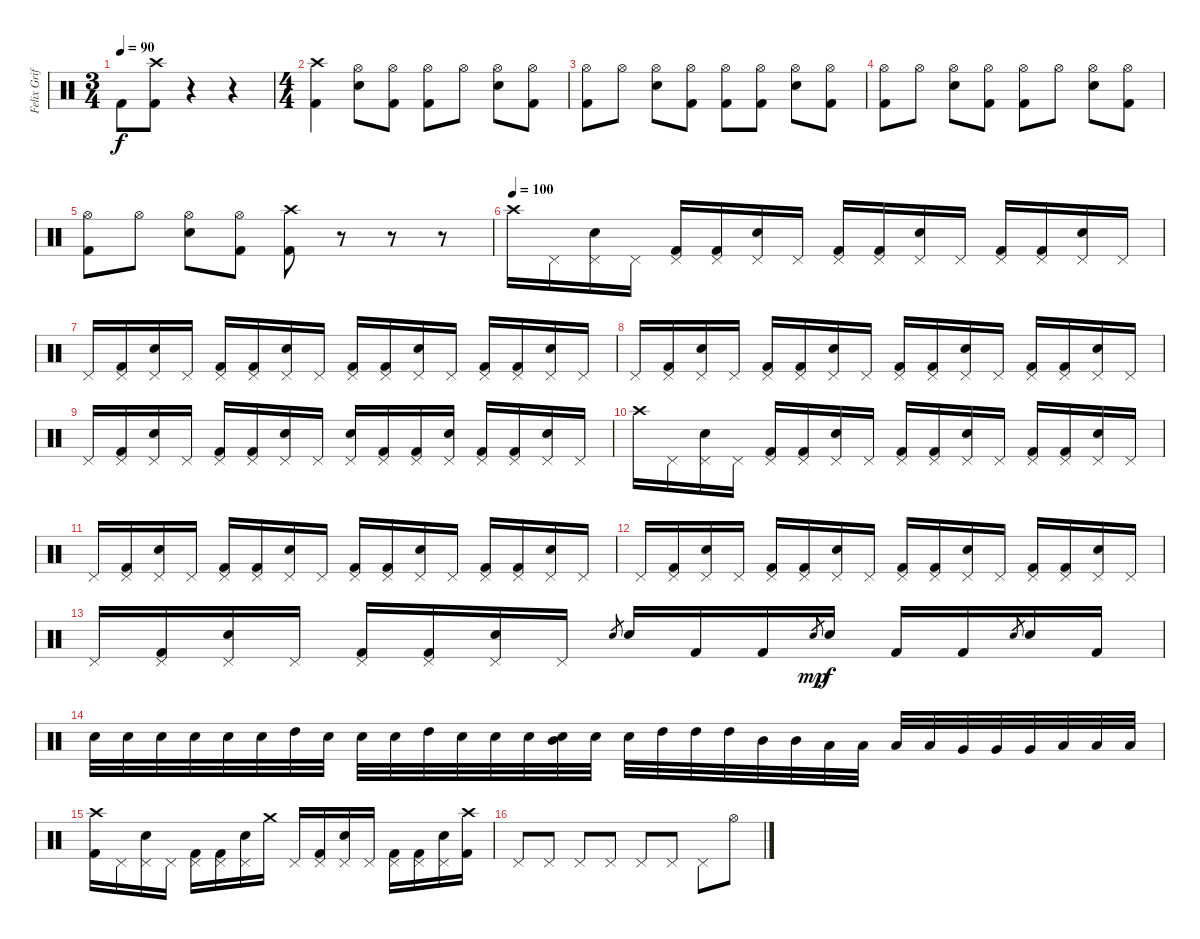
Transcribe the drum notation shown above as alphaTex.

\track ("Felix Griffen" "Felix Grif") {instrument percussion}
\staff {score}
\articulation defaults
\ts (3 4)
\tempo 90
\clef neutral
\ks c "Kick (hit) 2".8{dy f}
("Crash high (hit)" "Kick (hit) 2").8 r.4 r.4 |
\ts (4 4)
("Crash high (hit)" "Kick (hit) 2").4 ("Hi-Hat (open)" "Electric Snare (hit)").8 ("Hi-Hat (open)" "Kick (hit) 2").8 ("Hi-Hat (open)" "Kick (hit) 2").8 "Hi-Hat (open)".8 ("Hi-Hat (open)" "Electric Snare (hit)").8 ("Hi-Hat (open)" "Kick (hit) 2").8 |
("Hi-Hat (open)" "Kick (hit) 2").8 "Hi-Hat (open)".8 ("Hi-Hat (open)" "Electric Snare (hit)").8 ("Hi-Hat (open)" "Kick (hit) 2").8 ("Hi-Hat (open)" "Kick (hit) 2").8 ("Hi-Hat (open)" "Kick (hit) 2").8 ("Hi-Hat (open)" "Electric Snare (hit)").8 ("Hi-Hat (open)" "Kick (hit) 2").8 |
("Hi-Hat (open)" "Kick (hit) 2").8 "Hi-Hat (open)".8 ("Hi-Hat (open)" "Electric Snare (hit)").8 ("Hi-Hat (open)" "Kick (hit) 2").8 ("Hi-Hat (open)" "Kick (hit) 2").8 "Hi-Hat (open)".8 ("Hi-Hat (open)" "Electric Snare (hit)").8 ("Hi-Hat (open)" "Kick (hit) 2").8 |
("Hi-Hat (open)" "Kick (hit) 2").8 "Hi-Hat (open)".8 ("Hi-Hat (open)" "Electric Snare (hit)").8 ("Hi-Hat (open)" "Kick (hit) 2").8 ("Crash high (hit)" "Kick (hit) 2").8 r.8 r.8 r.8 |
\tempo (100)
"Crash high (hit)".16 "Pedal Hi-Hat (hit)".16 ("Pedal Hi-Hat (hit)" "Electric Snare (hit)").16 "Pedal Hi-Hat (hit)".16 ("Pedal Hi-Hat (hit)" "Kick (hit) 2").16 ("Pedal Hi-Hat (hit)" "Kick (hit) 2").16 ("Pedal Hi-Hat (hit)" "Electric Snare (hit)").16 "Pedal Hi-Hat (hit)".16 ("Pedal Hi-Hat (hit)" "Kick (hit) 2").16 ("Pedal Hi-Hat (hit)" "Kick (hit) 2").16 ("Pedal Hi-Hat (hit)" "Electric Snare (hit)").16 "Pedal Hi-Hat (hit)".16 ("Pedal Hi-Hat (hit)" "Kick (hit) 2").16 ("Pedal Hi-Hat (hit)" "Kick (hit) 2").16 ("Pedal Hi-Hat (hit)" "Electric Snare (hit)").16 "Pedal Hi-Hat (hit)".16 |
"Pedal Hi-Hat (hit)".16 ("Pedal Hi-Hat (hit)" "Kick (hit) 2").16 ("Pedal Hi-Hat (hit)" "Electric Snare (hit)").16 "Pedal Hi-Hat (hit)".16 ("Pedal Hi-Hat (hit)" "Kick (hit) 2").16 ("Pedal Hi-Hat (hit)" "Kick (hit) 2").16 ("Pedal Hi-Hat (hit)" "Electric Snare (hit)").16 "Pedal Hi-Hat (hit)".16 ("Pedal Hi-Hat (hit)" "Kick (hit) 2").16 ("Pedal Hi-Hat (hit)" "Kick (hit) 2").16 ("Pedal Hi-Hat (hit)" "Electric Snare (hit)").16 "Pedal Hi-Hat (hit)".16 ("Pedal Hi-Hat (hit)" "Kick (hit) 2").16 ("Pedal Hi-Hat (hit)" "Kick (hit) 2").16 ("Pedal Hi-Hat (hit)" "Electric Snare (hit)").16 "Pedal Hi-Hat (hit)".16 |
"Pedal Hi-Hat (hit)".16 ("Pedal Hi-Hat (hit)" "Kick (hit) 2").16 ("Pedal Hi-Hat (hit)" "Electric Snare (hit)").16 "Pedal Hi-Hat (hit)".16 ("Pedal Hi-Hat (hit)" "Kick (hit) 2").16 ("Pedal Hi-Hat (hit)" "Kick (hit) 2").16 ("Pedal Hi-Hat (hit)" "Electric Snare (hit)").16 "Pedal Hi-Hat (hit)".16 ("Pedal Hi-Hat (hit)" "Kick (hit) 2").16 ("Pedal Hi-Hat (hit)" "Kick (hit) 2").16 ("Pedal Hi-Hat (hit)" "Electric Snare (hit)").16 "Pedal Hi-Hat (hit)".16 ("Pedal Hi-Hat (hit)" "Kick (hit) 2").16 ("Pedal Hi-Hat (hit)" "Kick (hit) 2").16 ("Pedal Hi-Hat (hit)" "Electric Snare (hit)").16 "Pedal Hi-Hat (hit)".16 |
"Pedal Hi-Hat (hit)".16 ("Pedal Hi-Hat (hit)" "Kick (hit) 2").16 ("Pedal Hi-Hat (hit)" "Electric Snare (hit)").16 "Pedal Hi-Hat (hit)".16 ("Pedal Hi-Hat (hit)" "Kick (hit) 2").16 ("Pedal Hi-Hat (hit)" "Kick (hit) 2").16 ("Pedal Hi-Hat (hit)" "Electric Snare (hit)").16 "Pedal Hi-Hat (hit)".16 ("Pedal Hi-Hat (hit)" "Electric Snare (hit)").16 ("Pedal Hi-Hat (hit)" "Kick (hit) 2").16 ("Pedal Hi-Hat (hit)" "Kick (hit) 2").16 ("Pedal Hi-Hat (hit)" "Electric Snare (hit)").16 ("Pedal Hi-Hat (hit)" "Kick (hit) 2").16 ("Pedal Hi-Hat (hit)" "Kick (hit) 2").16 ("Pedal Hi-Hat (hit)" "Electric Snare (hit)").16 "Pedal Hi-Hat (hit)".16 |
"Crash high (hit)".16 "Pedal Hi-Hat (hit)".16 ("Pedal Hi-Hat (hit)" "Electric Snare (hit)").16 "Pedal Hi-Hat (hit)".16 ("Pedal Hi-Hat (hit)" "Kick (hit) 2").16 ("Pedal Hi-Hat (hit)" "Kick (hit) 2").16 ("Pedal Hi-Hat (hit)" "Electric Snare (hit)").16 "Pedal Hi-Hat (hit)".16 ("Pedal Hi-Hat (hit)" "Kick (hit) 2").16 ("Pedal Hi-Hat (hit)" "Kick (hit) 2").16 ("Pedal Hi-Hat (hit)" "Electric Snare (hit)").16 "Pedal Hi-Hat (hit)".16 ("Pedal Hi-Hat (hit)" "Kick (hit) 2").16 ("Pedal Hi-Hat (hit)" "Kick (hit) 2").16 ("Pedal Hi-Hat (hit)" "Electric Snare (hit)").16 "Pedal Hi-Hat (hit)".16 |
"Pedal Hi-Hat (hit)".16 ("Pedal Hi-Hat (hit)" "Kick (hit) 2").16 ("Pedal Hi-Hat (hit)" "Electric Snare (hit)").16 "Pedal Hi-Hat (hit)".16 ("Pedal Hi-Hat (hit)" "Kick (hit) 2").16 ("Pedal Hi-Hat (hit)" "Kick (hit) 2").16 ("Pedal Hi-Hat (hit)" "Electric Snare (hit)").16 "Pedal Hi-Hat (hit)".16 ("Pedal Hi-Hat (hit)" "Kick (hit) 2").16 ("Pedal Hi-Hat (hit)" "Kick (hit) 2").16 ("Pedal Hi-Hat (hit)" "Electric Snare (hit)").16 "Pedal Hi-Hat (hit)".16 ("Pedal Hi-Hat (hit)" "Kick (hit) 2").16 ("Pedal Hi-Hat (hit)" "Kick (hit) 2").16 ("Pedal Hi-Hat (hit)" "Electric Snare (hit)").16 "Pedal Hi-Hat (hit)".16 |
"Pedal Hi-Hat (hit)".16 ("Pedal Hi-Hat (hit)" "Kick (hit) 2").16 ("Pedal Hi-Hat (hit)" "Electric Snare (hit)").16 "Pedal Hi-Hat (hit)".16 ("Pedal Hi-Hat (hit)" "Kick (hit) 2").16 ("Pedal Hi-Hat (hit)" "Kick (hit) 2").16 ("Pedal Hi-Hat (hit)" "Electric Snare (hit)").16 "Pedal Hi-Hat (hit)".16 ("Pedal Hi-Hat (hit)" "Kick (hit) 2").16 ("Pedal Hi-Hat (hit)" "Kick (hit) 2").16 ("Pedal Hi-Hat (hit)" "Electric Snare (hit)").16 "Pedal Hi-Hat (hit)".16 ("Pedal Hi-Hat (hit)" "Kick (hit) 2").16 ("Pedal Hi-Hat (hit)" "Kick (hit) 2").16 ("Pedal Hi-Hat (hit)" "Electric Snare (hit)").16 "Pedal Hi-Hat (hit)".16 |
"Pedal Hi-Hat (hit)".16 ("Pedal Hi-Hat (hit)" "Kick (hit) 2").16 ("Pedal Hi-Hat (hit)" "Electric Snare (hit)").16 "Pedal Hi-Hat (hit)".16 ("Pedal Hi-Hat (hit)" "Kick (hit) 2").16 ("Pedal Hi-Hat (hit)" "Kick (hit) 2").16 ("Pedal Hi-Hat (hit)" "Electric Snare (hit)").16 "Pedal Hi-Hat (hit)".16 "Electric Snare (hit)".8{gr} "Electric Snare (hit)".16 "Kick (hit) 2".16 "Kick (hit) 2".16 "Electric Snare (hit)".8{gr dy mp} "Electric Snare (hit)".16{dy f} "Kick (hit) 2".16 "Kick (hit) 2".16 "Electric Snare (hit)".8{gr} "Electric Snare (hit)".16 "Kick (hit) 2".16 |
"Electric Snare (hit)".32 "Electric Snare (hit)".32 "Electric Snare (hit)".32 "Electric Snare (hit)".32 "Electric Snare (hit)".32 "Electric Snare (hit)".32 "High Tom (hit)".32 "Electric Snare (hit)".32 "Electric Snare (hit)".32 "Electric Snare (hit)".32 "High Tom (hit)".32 "Electric Snare (hit)".32 "Electric Snare (hit)".32 "Electric Snare (hit)".32 ("Mid Tom (hit)" "Electric Snare (hit)").32 "Electric Snare (hit)".32 "Electric Snare (hit)".32 "High Tom (hit)".32 "High Tom (hit)".32 "High Tom (hit)".32 "Mid Tom (hit)".32 "Mid Tom (hit)".32 "Low Tom (hit)".32 "Low Tom (hit)".32 "Low Tom (hit)".32 "Low Tom (hit)".32 "Very Low Tom (hit)".32 "Very Low Tom (hit)".32 "Very Low Tom (hit)".32 "Low Floor Tom (hit)".32 "Low Floor Tom (hit)".32 "Low Floor Tom (hit)".32 |
("Crash high (hit)" "Kick (hit) 2").16 "Pedal Hi-Hat (hit)".16 ("Pedal Hi-Hat (hit)" "Electric Snare (hit)").16 "Pedal Hi-Hat (hit)".16 ("Pedal Hi-Hat (hit)" "Kick (hit) 2").16 ("Pedal Hi-Hat (hit)" "Kick (hit) 2").16 ("Pedal Hi-Hat (hit)" "Electric Snare (hit)").16 "Crash medium (hit)".16 "Pedal Hi-Hat (hit)".16 ("Pedal Hi-Hat (hit)" "Kick (hit) 2").16 ("Pedal Hi-Hat (hit)" "Electric Snare (hit)").16 "Pedal Hi-Hat (hit)".16 ("Pedal Hi-Hat (hit)" "Kick (hit) 2").16 ("Pedal Hi-Hat (hit)" "Kick (hit) 2").16 ("Pedal Hi-Hat (hit)" "Electric Snare (hit)").16 ("Crash high (hit)" "Kick (hit) 2").16 |
"Pedal Hi-Hat (hit)".8 "Pedal Hi-Hat (hit)".8 "Pedal Hi-Hat (hit)".8 "Pedal Hi-Hat (hit)".8 "Pedal Hi-Hat (hit)".8 "Pedal Hi-Hat (hit)".8 "Pedal Hi-Hat (hit)".8 "Hi-Hat (open)".8
